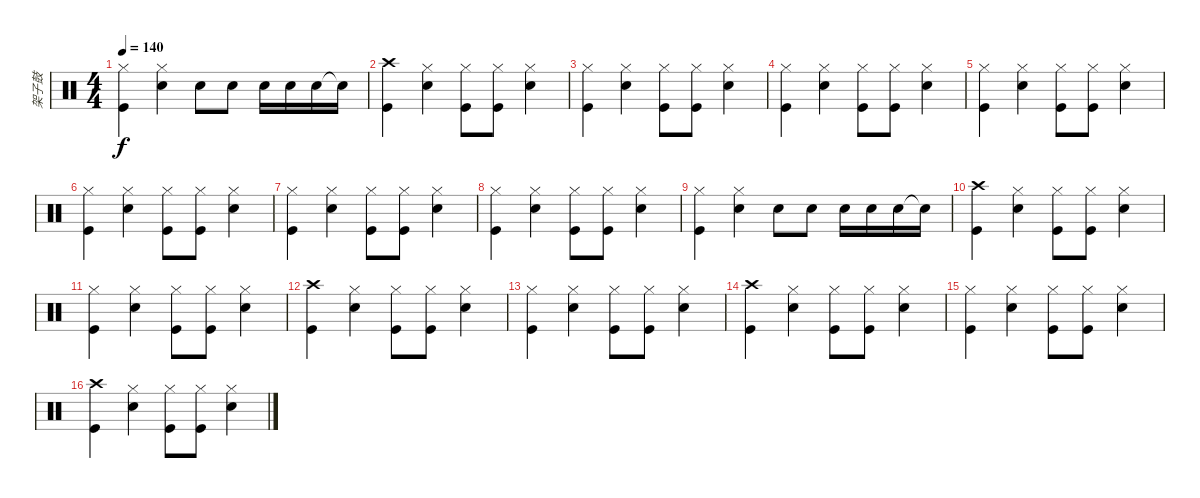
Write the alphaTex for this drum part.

\track ("架子鼓" "架子鼓") {instrument percussion}
\staff {score}
\articulation defaults
\ts (4 4)
\tempo 140
\clef neutral
\ks c
("Hi-Hat (closed)" "Kick (hit)").4{dy f} ("Hi-Hat (closed)" "Electric Snare (hit)").4 "Electric Snare (hit)".8 "Electric Snare (hit)".8 "Electric Snare (hit)".16 "Electric Snare (hit)".16 "Electric Snare (hit)".16 "Snare (hit)"{t}.16 |
("Crash high (hit)" "Kick (hit)").4 ("Hi-Hat (closed)" "Electric Snare (hit)").4 ("Hi-Hat (closed)" "Kick (hit)").8 ("Hi-Hat (closed)" "Kick (hit)").8 ("Hi-Hat (closed)" "Electric Snare (hit)").4 |
("Hi-Hat (closed)" "Kick (hit)").4 ("Hi-Hat (closed)" "Electric Snare (hit)").4 ("Hi-Hat (closed)" "Kick (hit)").8 ("Hi-Hat (closed)" "Kick (hit)").8 ("Hi-Hat (closed)" "Electric Snare (hit)").4 |
("Hi-Hat (closed)" "Kick (hit)").4 ("Hi-Hat (closed)" "Electric Snare (hit)").4 ("Hi-Hat (closed)" "Kick (hit)").8 ("Hi-Hat (closed)" "Kick (hit)").8 ("Hi-Hat (closed)" "Electric Snare (hit)").4 |
("Hi-Hat (closed)" "Kick (hit)").4 ("Hi-Hat (closed)" "Electric Snare (hit)").4 ("Hi-Hat (closed)" "Kick (hit)").8 ("Hi-Hat (closed)" "Kick (hit)").8 ("Hi-Hat (closed)" "Electric Snare (hit)").4 |
("Hi-Hat (closed)" "Kick (hit)").4 ("Hi-Hat (closed)" "Electric Snare (hit)").4 ("Hi-Hat (closed)" "Kick (hit)").8 ("Hi-Hat (closed)" "Kick (hit)").8 ("Hi-Hat (closed)" "Electric Snare (hit)").4 |
("Hi-Hat (closed)" "Kick (hit)").4 ("Hi-Hat (closed)" "Electric Snare (hit)").4 ("Hi-Hat (closed)" "Kick (hit)").8 ("Hi-Hat (closed)" "Kick (hit)").8 ("Hi-Hat (closed)" "Electric Snare (hit)").4 |
("Hi-Hat (closed)" "Kick (hit)").4 ("Hi-Hat (closed)" "Electric Snare (hit)").4 ("Hi-Hat (closed)" "Kick (hit)").8 ("Hi-Hat (closed)" "Kick (hit)").8 ("Hi-Hat (closed)" "Electric Snare (hit)").4 |
("Hi-Hat (closed)" "Kick (hit)").4 ("Hi-Hat (closed)" "Electric Snare (hit)").4 "Electric Snare (hit)".8 "Electric Snare (hit)".8 "Electric Snare (hit)".16 "Electric Snare (hit)".16 "Electric Snare (hit)".16 "Snare (hit)"{t}.16 |
("Crash high (hit)" "Kick (hit)").4 ("Hi-Hat (closed)" "Electric Snare (hit)").4 ("Hi-Hat (closed)" "Kick (hit)").8 ("Hi-Hat (closed)" "Kick (hit)").8 ("Hi-Hat (closed)" "Electric Snare (hit)").4 |
("Hi-Hat (closed)" "Kick (hit)").4 ("Hi-Hat (closed)" "Electric Snare (hit)").4 ("Hi-Hat (closed)" "Kick (hit)").8 ("Hi-Hat (closed)" "Kick (hit)").8 ("Hi-Hat (closed)" "Electric Snare (hit)").4 |
("Crash high (hit)" "Kick (hit)").4 ("Hi-Hat (closed)" "Electric Snare (hit)").4 ("Hi-Hat (closed)" "Kick (hit)").8 ("Hi-Hat (closed)" "Kick (hit)").8 ("Hi-Hat (closed)" "Electric Snare (hit)").4 |
("Hi-Hat (closed)" "Kick (hit)").4 ("Hi-Hat (closed)" "Electric Snare (hit)").4 ("Hi-Hat (closed)" "Kick (hit)").8 ("Hi-Hat (closed)" "Kick (hit)").8 ("Hi-Hat (closed)" "Electric Snare (hit)").4 |
("Crash high (hit)" "Kick (hit)").4 ("Hi-Hat (closed)" "Electric Snare (hit)").4 ("Hi-Hat (closed)" "Kick (hit)").8 ("Hi-Hat (closed)" "Kick (hit)").8 ("Hi-Hat (closed)" "Electric Snare (hit)").4 |
("Hi-Hat (closed)" "Kick (hit)").4 ("Hi-Hat (closed)" "Electric Snare (hit)").4 ("Hi-Hat (closed)" "Kick (hit)").8 ("Hi-Hat (closed)" "Kick (hit)").8 ("Hi-Hat (closed)" "Electric Snare (hit)").4 |
("Crash high (hit)" "Kick (hit)").4 ("Hi-Hat (closed)" "Electric Snare (hit)").4 ("Hi-Hat (closed)" "Kick (hit)").8 ("Hi-Hat (closed)" "Kick (hit)").8 ("Hi-Hat (closed)" "Electric Snare (hit)").4
